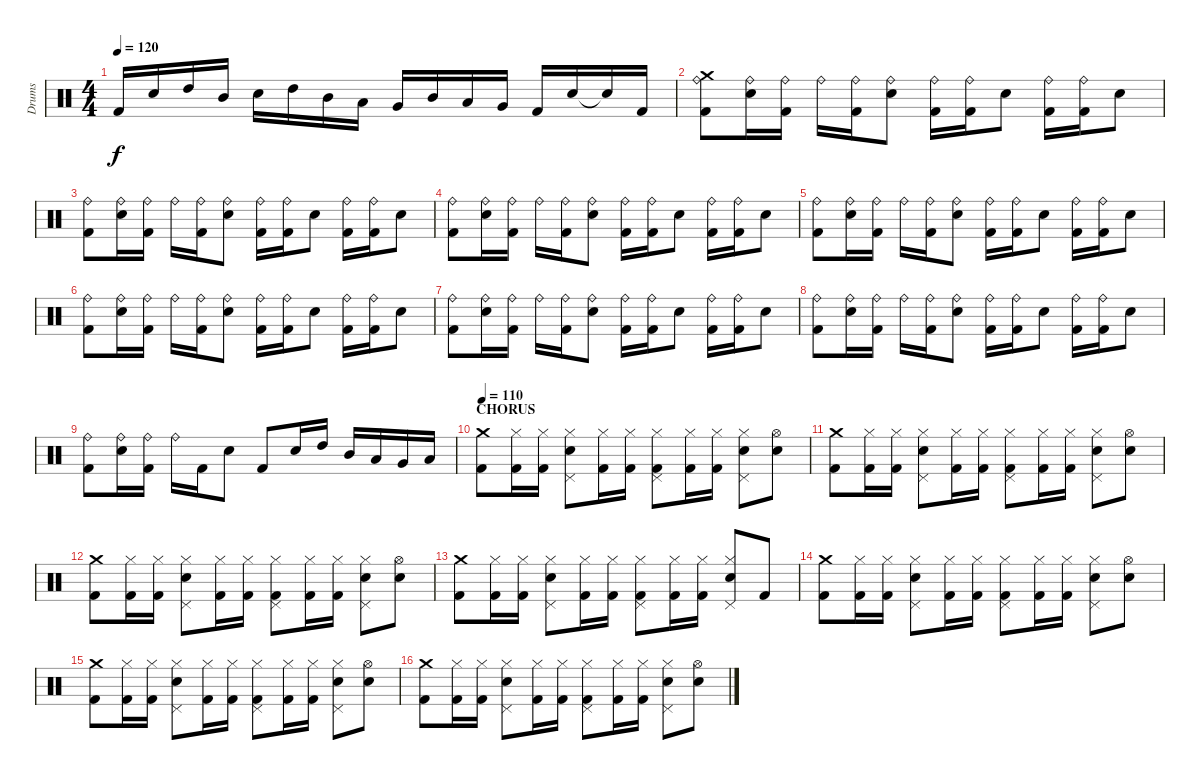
\track ("Drums" "Drums") {instrument percussion}
\staff {score}
\articulation defaults
\ts (4 4)
\tempo 120
\clef neutral
\ks c "Kick (hit) 2".16{dy f} "Snare (hit) 2".16 "High Tom (hit)".16 "Mid Tom (hit)".16 "Snare (hit) 2".16 "High Tom (hit)".16 "Mid Tom (hit)".16 "Low Tom (hit)".16 "Very Low Tom (hit)".16 "Mid Tom (hit)".16 "Low Tom (hit)".16 "Very Low Tom (hit)".16 "Kick (hit) 2".16 "Snare (hit) 2".16 "Snare (hit)"{t}.16 "Kick (hit) 2".16
|
("Crash medium (hit)" "Kick (hit) 2" "Ride (bell)").8 ("Snare (hit) 2" "Ride (bell)").16 ("Kick (hit) 2" "Ride (bell)").16 "Ride (bell)".16 ("Kick (hit) 2" "Ride (bell)").16 ("Snare (hit) 2" "Ride (bell)").8 ("Kick (hit) 2" "Ride (bell)").16 ("Kick (hit) 2" "Ride (bell)").16 "Snare (hit) 2".8 ("Kick (hit) 2" "Ride (bell)").16 ("Kick (hit) 2" "Ride (bell)").16 "Snare (hit) 2".8 |
("Kick (hit) 2" "Ride (bell)").8 ("Snare (hit) 2" "Ride (bell)").16 ("Kick (hit) 2" "Ride (bell)").16 "Ride (bell)".16 ("Kick (hit) 2" "Ride (bell)").16 ("Snare (hit) 2" "Ride (bell)").8 ("Kick (hit) 2" "Ride (bell)").16 ("Kick (hit) 2" "Ride (bell)").16 "Snare (hit) 2".8 ("Kick (hit) 2" "Ride (bell)").16 ("Kick (hit) 2" "Ride (bell)").16 "Snare (hit) 2".8 |
("Kick (hit) 2" "Ride (bell)").8 ("Snare (hit) 2" "Ride (bell)").16 ("Kick (hit) 2" "Ride (bell)").16 "Ride (bell)".16 ("Kick (hit) 2" "Ride (bell)").16 ("Snare (hit) 2" "Ride (bell)").8 ("Kick (hit) 2" "Ride (bell)").16 ("Kick (hit) 2" "Ride (bell)").16 "Snare (hit) 2".8 ("Kick (hit) 2" "Ride (bell)").16 ("Kick (hit) 2" "Ride (bell)").16 "Snare (hit) 2".8 |
("Kick (hit) 2" "Ride (bell)").8 ("Snare (hit) 2" "Ride (bell)").16 ("Kick (hit) 2" "Ride (bell)").16 "Ride (bell)".16 ("Kick (hit) 2" "Ride (bell)").16 ("Snare (hit) 2" "Ride (bell)").8 ("Kick (hit) 2" "Ride (bell)").16 ("Kick (hit) 2" "Ride (bell)").16 "Snare (hit) 2".8 ("Kick (hit) 2" "Ride (bell)").16 ("Kick (hit) 2" "Ride (bell)").16 "Snare (hit) 2".8 |
("Kick (hit) 2" "Ride (bell)").8 ("Snare (hit) 2" "Ride (bell)").16 ("Kick (hit) 2" "Ride (bell)").16 "Ride (bell)".16 ("Kick (hit) 2" "Ride (bell)").16 ("Snare (hit) 2" "Ride (bell)").8 ("Kick (hit) 2" "Ride (bell)").16 ("Kick (hit) 2" "Ride (bell)").16 "Snare (hit) 2".8 ("Kick (hit) 2" "Ride (bell)").16 ("Kick (hit) 2" "Ride (bell)").16 "Snare (hit) 2".8 |
("Kick (hit) 2" "Ride (bell)").8 ("Snare (hit) 2" "Ride (bell)").16 ("Kick (hit) 2" "Ride (bell)").16 "Ride (bell)".16 ("Kick (hit) 2" "Ride (bell)").16 ("Snare (hit) 2" "Ride (bell)").8 ("Kick (hit) 2" "Ride (bell)").16 ("Kick (hit) 2" "Ride (bell)").16 "Snare (hit) 2".8 ("Kick (hit) 2" "Ride (bell)").16 ("Kick (hit) 2" "Ride (bell)").16 "Snare (hit) 2".8 |
("Kick (hit) 2" "Ride (bell)").8 ("Snare (hit) 2" "Ride (bell)").16 ("Kick (hit) 2" "Ride (bell)").16 "Ride (bell)".16 ("Kick (hit) 2" "Ride (bell)").16 ("Snare (hit) 2" "Ride (bell)").8 ("Kick (hit) 2" "Ride (bell)").16 ("Kick (hit) 2" "Ride (bell)").16 "Snare (hit) 2".8 ("Kick (hit) 2" "Ride (bell)").16 ("Kick (hit) 2" "Ride (bell)").16 "Snare (hit) 2".8 |
("Kick (hit) 2" "Ride (bell)").8 ("Snare (hit) 2" "Ride (bell)").16 ("Kick (hit) 2" "Ride (bell)").16 "Ride (bell)".16 "Kick (hit) 2".16 "Snare (hit) 2".8 "Kick (hit) 2".8 "Snare (hit) 2".16 "High Tom (hit)".16 "Mid Tom (hit)".16 "Low Tom (hit)".16 "Very Low Tom (hit)".16 "Low Floor Tom (hit)".16 |
\section ("" "CHORUS")
\tempo 110
("Crash medium (hit)" "Kick (hit) 2").8 ("Kick (hit) 2" "Hi-Hat (closed)").16 ("Kick (hit) 2" "Hi-Hat (closed)").16 ("Snare (hit) 2" "Pedal Hi-Hat (hit)" "Hi-Hat (closed)").8 ("Kick (hit) 2" "Hi-Hat (closed)").16 ("Kick (hit) 2" "Hi-Hat (closed)").16 ("Kick (hit) 2" "Pedal Hi-Hat (hit)" "Hi-Hat (closed)").8 ("Kick (hit) 2" "Hi-Hat (closed)").16 ("Kick (hit) 2" "Hi-Hat (closed)").16 ("Snare (hit) 2" "Pedal Hi-Hat (hit)" "Hi-Hat (closed)").8 ("Snare (hit) 2" "Hi-Hat (open)").8 |
("Crash medium (hit)" "Kick (hit) 2").8 ("Kick (hit) 2" "Hi-Hat (closed)").16 ("Kick (hit) 2" "Hi-Hat (closed)").16 ("Snare (hit) 2" "Pedal Hi-Hat (hit)" "Hi-Hat (closed)").8 ("Kick (hit) 2" "Hi-Hat (closed)").16 ("Kick (hit) 2" "Hi-Hat (closed)").16 ("Kick (hit) 2" "Pedal Hi-Hat (hit)" "Hi-Hat (closed)").8 ("Kick (hit) 2" "Hi-Hat (closed)").16 ("Kick (hit) 2" "Hi-Hat (closed)").16 ("Snare (hit) 2" "Pedal Hi-Hat (hit)" "Hi-Hat (closed)").8 ("Snare (hit) 2" "Hi-Hat (open)").8 |
("Crash medium (hit)" "Kick (hit) 2").8 ("Kick (hit) 2" "Hi-Hat (closed)").16 ("Kick (hit) 2" "Hi-Hat (closed)").16 ("Snare (hit) 2" "Pedal Hi-Hat (hit)" "Hi-Hat (closed)").8 ("Kick (hit) 2" "Hi-Hat (closed)").16 ("Kick (hit) 2" "Hi-Hat (closed)").16 ("Kick (hit) 2" "Pedal Hi-Hat (hit)" "Hi-Hat (closed)").8 ("Kick (hit) 2" "Hi-Hat (closed)").16 ("Kick (hit) 2" "Hi-Hat (closed)").16 ("Snare (hit) 2" "Pedal Hi-Hat (hit)" "Hi-Hat (closed)").8 ("Snare (hit) 2" "Hi-Hat (open)").8 |
("Crash medium (hit)" "Kick (hit) 2").8 ("Kick (hit) 2" "Hi-Hat (closed)").16 ("Kick (hit) 2" "Hi-Hat (closed)").16 ("Snare (hit) 2" "Pedal Hi-Hat (hit)" "Hi-Hat (closed)").8 ("Kick (hit) 2" "Hi-Hat (closed)").16 ("Kick (hit) 2" "Hi-Hat (closed)").16 ("Kick (hit) 2" "Pedal Hi-Hat (hit)" "Hi-Hat (closed)").8 ("Kick (hit) 2" "Hi-Hat (closed)").16 ("Kick (hit) 2" "Hi-Hat (closed)").16 ("Snare (hit) 2" "Pedal Hi-Hat (hit)" "Hi-Hat (closed)").8 "Kick (hit) 2".8 |
("Crash medium (hit)" "Kick (hit) 2").8 ("Kick (hit) 2" "Hi-Hat (closed)").16 ("Kick (hit) 2" "Hi-Hat (closed)").16 ("Snare (hit) 2" "Pedal Hi-Hat (hit)" "Hi-Hat (closed)").8 ("Kick (hit) 2" "Hi-Hat (closed)").16 ("Kick (hit) 2" "Hi-Hat (closed)").16 ("Kick (hit) 2" "Pedal Hi-Hat (hit)" "Hi-Hat (closed)").8 ("Kick (hit) 2" "Hi-Hat (closed)").16 ("Kick (hit) 2" "Hi-Hat (closed)").16 ("Snare (hit) 2" "Pedal Hi-Hat (hit)" "Hi-Hat (closed)").8 ("Snare (hit) 2" "Hi-Hat (open)").8 |
("Crash medium (hit)" "Kick (hit) 2").8 ("Kick (hit) 2" "Hi-Hat (closed)").16 ("Kick (hit) 2" "Hi-Hat (closed)").16 ("Snare (hit) 2" "Pedal Hi-Hat (hit)" "Hi-Hat (closed)").8 ("Kick (hit) 2" "Hi-Hat (closed)").16 ("Kick (hit) 2" "Hi-Hat (closed)").16 ("Kick (hit) 2" "Pedal Hi-Hat (hit)" "Hi-Hat (closed)").8 ("Kick (hit) 2" "Hi-Hat (closed)").16 ("Kick (hit) 2" "Hi-Hat (closed)").16 ("Snare (hit) 2" "Pedal Hi-Hat (hit)" "Hi-Hat (closed)").8 ("Snare (hit) 2" "Hi-Hat (open)").8 |
("Crash medium (hit)" "Kick (hit) 2").8 ("Kick (hit) 2" "Hi-Hat (closed)").16 ("Kick (hit) 2" "Hi-Hat (closed)").16 ("Snare (hit) 2" "Pedal Hi-Hat (hit)" "Hi-Hat (closed)").8 ("Kick (hit) 2" "Hi-Hat (closed)").16 ("Kick (hit) 2" "Hi-Hat (closed)").16 ("Kick (hit) 2" "Pedal Hi-Hat (hit)" "Hi-Hat (closed)").8 ("Kick (hit) 2" "Hi-Hat (closed)").16 ("Kick (hit) 2" "Hi-Hat (closed)").16 ("Snare (hit) 2" "Pedal Hi-Hat (hit)" "Hi-Hat (closed)").8 ("Snare (hit) 2" "Hi-Hat (open)").8
